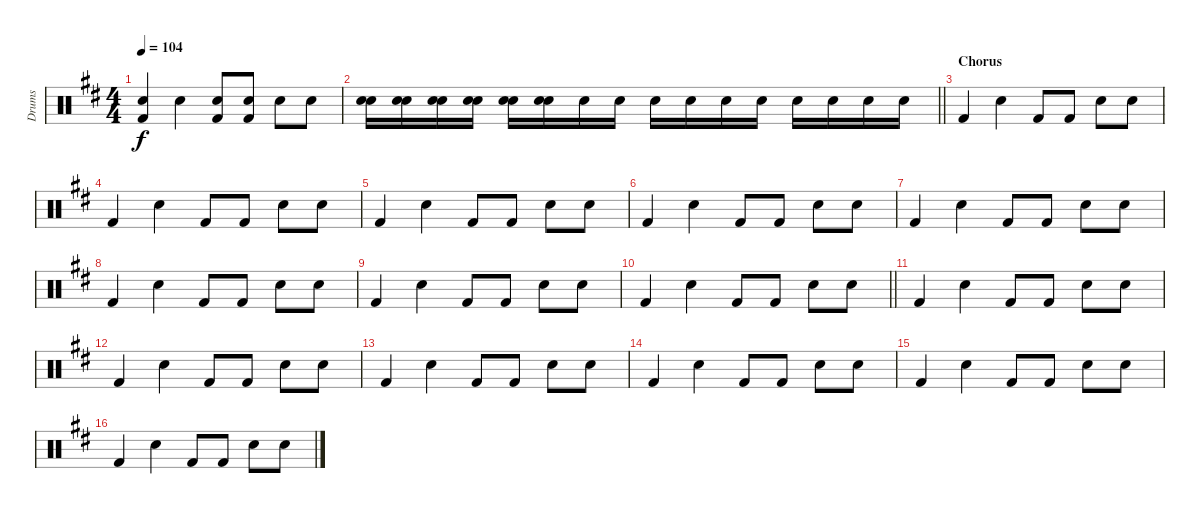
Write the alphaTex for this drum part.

\track ("Drums" "Drums") {instrument percussion}
\staff {score}
\articulation defaults
\ts (4 4)
\tempo 104
\clef neutral
\ks d
("Snare (hit)" "Kick (hit) 2").4{dy f} "Electric Snare (hit)".4 ("Snare (hit)" "Kick (hit) 2").8 ("Snare (hit)" "Kick (hit) 2").8 "Electric Snare (hit)".8 "Electric Snare (hit)".8 |
\barLineRight lightlight
("Snare (hit)" "Electric Snare (hit)").16 ("Electric Snare (hit)" "Electric Snare (hit)").16 ("Snare (hit)" "Electric Snare (hit)").16 ("Snare (hit)" "Electric Snare (hit)").16 ("Electric Snare (hit)" "Electric Snare (hit)").16 ("Electric Snare (hit)" "Electric Snare (hit)").16 "Electric Snare (hit)".16 "Electric Snare (hit)".16 "Electric Snare (hit)".16 "Electric Snare (hit)".16 "Electric Snare (hit)".16 "Electric Snare (hit)".16 "Electric Snare (hit)".16 "Electric Snare (hit)".16 "Electric Snare (hit)".16 "Electric Snare (hit)".16 |
\section ("" "Chorus")
"Kick (hit) 2".4 "Electric Snare (hit)".4 "Kick (hit) 2".8 "Kick (hit) 2".8 "Electric Snare (hit)".8 "Electric Snare (hit)".8 |
"Kick (hit) 2".4 "Electric Snare (hit)".4 "Kick (hit) 2".8 "Kick (hit) 2".8 "Electric Snare (hit)".8 "Electric Snare (hit)".8 |
"Kick (hit) 2".4 "Electric Snare (hit)".4 "Kick (hit) 2".8 "Kick (hit) 2".8 "Electric Snare (hit)".8 "Electric Snare (hit)".8 |
"Kick (hit) 2".4 "Electric Snare (hit)".4 "Kick (hit) 2".8 "Kick (hit) 2".8 "Electric Snare (hit)".8 "Electric Snare (hit)".8 |
"Kick (hit) 2".4 "Electric Snare (hit)".4 "Kick (hit) 2".8 "Kick (hit) 2".8 "Electric Snare (hit)".8 "Electric Snare (hit)".8 |
"Kick (hit) 2".4 "Electric Snare (hit)".4 "Kick (hit) 2".8 "Kick (hit) 2".8 "Electric Snare (hit)".8 "Electric Snare (hit)".8 |
"Kick (hit) 2".4 "Electric Snare (hit)".4 "Kick (hit) 2".8 "Kick (hit) 2".8 "Electric Snare (hit)".8 "Electric Snare (hit)".8 |
\barLineRight lightlight "Kick (hit) 2".4 "Electric Snare (hit)".4 "Kick (hit) 2".8 "Kick (hit) 2".8 "Electric Snare (hit)".8 "Electric Snare (hit)".8
|
"Kick (hit) 2".4 "Electric Snare (hit)".4 "Kick (hit) 2".8 "Kick (hit) 2".8 "Electric Snare (hit)".8 "Electric Snare (hit)".8 |
"Kick (hit) 2".4 "Electric Snare (hit)".4 "Kick (hit) 2".8 "Kick (hit) 2".8 "Electric Snare (hit)".8 "Electric Snare (hit)".8 |
"Kick (hit) 2".4 "Electric Snare (hit)".4 "Kick (hit) 2".8 "Kick (hit) 2".8 "Electric Snare (hit)".8 "Electric Snare (hit)".8 |
"Kick (hit) 2".4 "Electric Snare (hit)".4 "Kick (hit) 2".8 "Kick (hit) 2".8 "Electric Snare (hit)".8 "Electric Snare (hit)".8 |
"Kick (hit) 2".4 "Electric Snare (hit)".4 "Kick (hit) 2".8 "Kick (hit) 2".8 "Electric Snare (hit)".8 "Electric Snare (hit)".8 |
"Kick (hit) 2".4 "Electric Snare (hit)".4 "Kick (hit) 2".8 "Kick (hit) 2".8 "Electric Snare (hit)".8 "Electric Snare (hit)".8
